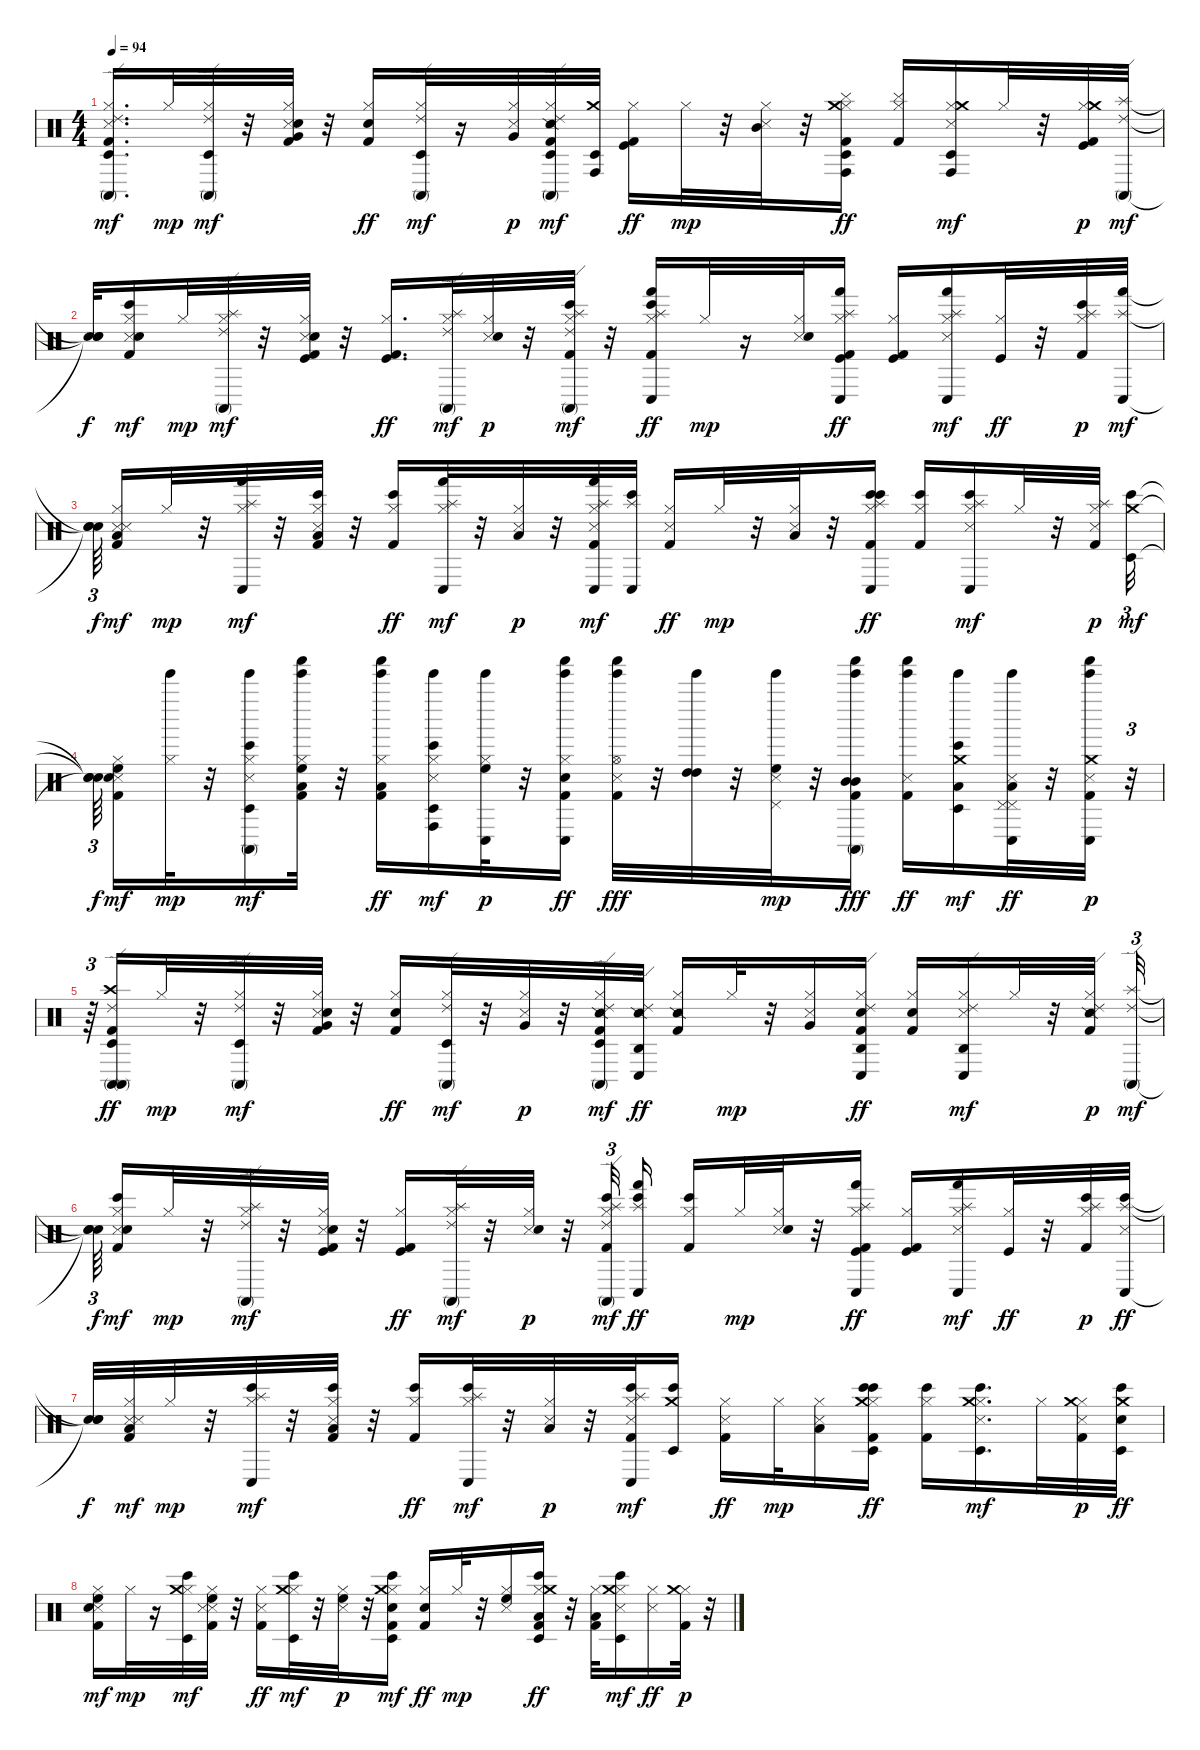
\track "" {instrument percussion}
\staff {score}
\articulation defaults
\ts (4 4)
\tempo 94
\clef neutral
\ks c
("Conga high (mute)" "Timbale low (hit)" "Ride (edge) 2" "Kick (hit) 2" "Snare (side stick) 3" "Hi-Hat (closed)").16{d dy mf volume 6} "Hi-Hat (closed)".32{dy mp} ("Hi-Hat (closed)" "Conga high (mute)" "Timbale low (hit)" "Ride (edge) 2").32{dy mf} r.32 ("Kick (hit) 2" "Snare (side stick) 3" "Hi-Hat (closed)" "Snare (hit) 2" "Very Low Tom (hit)").32 r.32 ("Kick (hit) 2" "Hi-Hat (closed)" "Snare (hit) 2").16{dy ff} ("Hi-Hat (closed)" "Timbale low (hit)" "Conga high (mute)" "Ride (edge) 2").32{dy mf} r.16 ("Snare (side stick) 3" "Hi-Hat (closed)" "Very Low Tom (hit)").32{dy p} ("Kick (hit) 2" "Hi-Hat (closed)" "Snare (side stick) 2" "Conga high (mute)" "Ride (edge) 2" "Timbale low (hit)").32{dy mf} ("Conga high (hit)" "Timbale low (hit)" "Crash medium (hit)").32{volume 6} ("Kick (hit) 2" "Hi-Hat (closed)" "Kick (hit)").16{dy ff} "Hi-Hat (closed)".32{dy mp} r.32 ("Snare (side stick) 3" "Hi-Hat (closed)" "Mid Tom (hit)").32 r.32 ("Kick (hit) 2" "Hi-Hat (closed)" "Cymbal (hit)" "Timbale low (hit)" "Crash medium (hit)" "Conga high (hit)").16{dy ff} ("Kick (hit) 2" "Hi-Hat (closed)" "Cymbal (hit)").16 ("Snare (side stick) 3" "Hi-Hat (closed)" "Conga high (hit)" "Crash medium (hit)" "Timbale low (hit)").16{dy mf} "Hi-Hat (closed)".32 r.32 ("Kick (hit) 2" "Hi-Hat (closed)" "Kick (hit)" "Crash medium (hit)").32{dy p volume 7} ("Ride (edge) 2" "Conga high (mute)" "Splash (hit)").32{dy mf volume 6} |
("Snare (hit)"{t} "Snare (hit)"{t} "Snare (hit)"{t}).32{dy f} ("Kick (hit) 2" "Snare (side stick) 3" "Hi-Hat (closed)" "Bongo High (hit)" "Electric Snare (hit)").16{dy mf} "Hi-Hat (closed)".32{dy mp} ("Hi-Hat (closed)" "Ride (edge) 2" "Conga high (mute)" "Splash (hit)").32{dy mf} r.32 ("Kick (hit) 2" "Snare (side stick) 3" "Hi-Hat (closed)" "Kick (hit)" "Electric Snare (hit)").32 r.32 ("Kick (hit) 2" "Hi-Hat (closed)" "Kick (hit)").16{d dy ff} ("Hi-Hat (closed)" "Conga high (mute)" "Ride (edge) 2" "Splash (hit)").32{dy mf} ("Snare (side stick) 3" "Hi-Hat (closed)" "Electric Snare (hit)").32{dy p} r.32 ("Kick (hit) 2" "Hi-Hat (closed)" "Bongo High (hit)" "Ride (edge) 2" "Splash (hit)" "Conga high (mute)").32{dy mf volume 7} r.32 ("Hand (hit)" "Conga low (hit)" "Splash (hit)" "Kick (hit) 2" "Hi-Hat (closed)" "Bongo High (hit)").16{dy ff volume 6} "Hi-Hat (closed)".32{dy mp} r.16 ("Snare (side stick) 3" "Hi-Hat (closed)" "Electric Snare (hit)").32 ("Kick (hit) 2" "Hi-Hat (closed)" "Kick (hit)" "Conga low (hit)" "Splash (hit)" "Hand (hit)").16{dy ff} ("Kick (hit) 2" "Hi-Hat (closed)" "Kick (hit)").16 ("Snare (side stick) 3" "Hi-Hat (closed)" "Hand (hit)" "Splash (hit)" "Conga low (hit)").16{dy mf} ("Hi-Hat (closed)" "Kick (hit)").32{dy ff} r.32 ("Kick (hit) 2" "Hi-Hat (closed)" "Bongo High (hit)" "Splash (hit)").32{dy p volume 7} ("Hand (hit)" "Conga low (hit)" "Splash (hit)").32{dy mf volume 6} |
("Snare (hit)"{t} "Snare (hit)"{t} "Snare (hit)"{t}).64{tu (3 2) dy f beam splitsecondary} ("Kick (hit) 2" "Snare (side stick) 3" "Hi-Hat (closed)" "Metronome (hit)" "Low Tom (hit)").16{dy mf} "Hi-Hat (closed)".32{dy mp} r.32 ("Hi-Hat (closed)" "Hand (hit)" "Conga low (hit)" "Splash (hit)").32{dy mf} r.32 ("Kick (hit) 2" "Snare (side stick) 3" "Hi-Hat (closed)" "Bongo High (hit)" "Low Tom (hit)").32 r.32 ("Kick (hit) 2" "Hi-Hat (closed)" "Bongo High (hit)").16{dy ff} ("Hi-Hat (closed)" "Conga low (hit)" "Hand (hit)" "Splash (hit)").32{dy mf} r.32 ("Snare (side stick) 3" "Hi-Hat (closed)" "Low Tom (hit)").32{dy p} r.32 ("Kick (hit) 2" "Hi-Hat (closed)" "Metronome (hit)" "Hand (hit)" "Splash (hit)" "Conga low (hit)").32{dy mf volume 7} ("Bongo High (hit)" "Conga low (hit)" "Splash (hit)").32{volume 6} ("Kick (hit) 2" "Hi-Hat (closed)" "Metronome (hit)").16{dy ff} "Hi-Hat (closed)".32{dy mp} r.32 ("Snare (side stick) 3" "Hi-Hat (closed)" "Low Tom (hit)").32 r.32 ("Kick (hit) 2" "Hi-Hat (closed)" "Bongo High (hit)" "Conga low (hit)" "Splash (hit)" "Bongo High (hit)").16{dy ff} ("Kick (hit) 2" "Hi-Hat (closed)" "Bongo High (hit)").16 ("Snare (side stick) 3" "Hi-Hat (closed)" "Bongo High (hit)" "Splash (hit)" "Conga low (hit)").16{dy mf} "Hi-Hat (closed)".32 r.32 ("Kick (hit) 2" "Hi-Hat (closed)" "Metronome (hit)" "Splash (hit)").32{dy p} ("Bongo High (hit)" "Timbale low (hit)" "Crash medium (hit)").32{tu (3 2) dy mf volume 6} |
("Snare (hit)"{t} "Snare (hit)"{t} "Snare (hit)"{t}).64{tu (3 2) dy f beam splitsecondary} ("Kick (hit) 2" "Snare (side stick) 3" "Hi-Hat (closed)" "Snare (hit) 2" "High Floor Tom (hit)").16{dy mf} ("Tinkle Bell (hit)" "Hi-Hat (closed)").32{dy mp} r.32 ("Tinkle Bell (hit)" "Conga high (mute)" "Snare (side stick) 3" "Hi-Hat (closed)" "Bongo High (hit)" "Timbale low (hit)").16{dy mf} ("Kick (hit) 2" "Hi-Hat (closed)" "Tinkle Bell (hit)" "Shaker (hit)" "Low Tom (hit)" "High Floor Tom (hit)").32 r.32 ("Kick (hit) 2" "Hi-Hat (closed)" "Tinkle Bell (hit)" "Shaker (hit)" "Low Tom (hit)").16{dy ff} ("Tinkle Bell (hit)" "Conga high (hit)" "Snare (side stick) 3" "Hi-Hat (closed)" "Timbale low (hit)" "Bongo High (hit)").16{dy mf} ("Tinkle Bell (hit)" "Conga low (hit)" "Hi-Hat (closed)" "High Floor Tom (hit)").32{dy p} r.32 ("Kick (hit) 2" "Conga low (hit)" "Hi-Hat (closed)" "Tinkle Bell (hit)" "Shaker (hit)" "Snare (hit) 2").16{dy ff} ("Kick (hit) 2" "Snare (side stick) 3" "Tinkle Bell (hit)" "Shaker (hit)" "Hi-Hat (open)").32{dy fff} r.32 ("Tinkle Bell (hit)" "High Tom (hit)" "High Tom (hit)").32 r.32 ("Tinkle Bell (hit)" "Pedal Hi-Hat (hit)" "Snare (side stick) 3" "High Floor Tom (hit)").32{dy mp} r.32 ("Conga high (mute)" "Kick (hit) 2" "Tinkle Bell (hit)" "Shaker (hit)" "Mid Tom (hit)" "Mid Tom (hit)").16{dy fff} ("Kick (hit) 2" "Tinkle Bell (hit)" "Shaker (hit)" "Metronome (hit)").16{dy ff} ("Tinkle Bell (hit)" "Low Tom (hit)" "Bongo High (hit)" "Crash medium (hit)" "Timbale low (hit)").16{dy mf} ("Tinkle Bell (hit)" "Conga low (hit)" "Pedal Hi-Hat (hit)" "Snare (side stick) 3" "Pedal Hi-Hat (hit)" "Low Tom (hit)").32{dy ff} r.32 ("Kick (hit) 2" "Tinkle Bell (hit)" "Shaker (hit)" "Conga low (hit)" "Metronome (hit)" "Crash medium (hit)").32{dy p volume 7} r.32{tu (3 2)} |
r.64{tu (3 2)} ("Conga high (mute)" "Conga high (mute)" "Timbale low (hit)" "Ride (edge) 2" "Crash high (hit)" "Kick (hit) 2").16{dy ff volume 6} "Hi-Hat (closed)".32{dy mp} r.32 ("Hi-Hat (closed)" "Conga high (mute)" "Timbale low (hit)" "Ride (edge) 2").32{dy mf} r.32 ("Kick (hit) 2" "Snare (side stick) 3" "Hi-Hat (closed)" "Snare (hit) 2" "Very Low Tom (hit)").32 r.32 ("Kick (hit) 2" "Hi-Hat (closed)" "Snare (hit) 2").16{dy ff} ("Hi-Hat (closed)" "Timbale low (hit)" "Conga high (mute)" "Ride (edge) 2").32{dy mf} r.32 ("Snare (side stick) 3" "Hi-Hat (closed)" "Very Low Tom (hit)").32{dy p} r.32 ("Kick (hit) 2" "Hi-Hat (closed)" "Snare (side stick) 2" "Conga high (mute)" "Ride (edge) 2" "Timbale low (hit)").32{dy mf} ("Conga low (hit)" "Agogo high (hit)" "Ride (edge) 2" "Snare (side stick) 2").32{dy ff volume 6} ("Kick (hit) 2" "Hi-Hat (closed)" "Snare (side stick) 2").16 "Hi-Hat (closed)".32{dy mp} r.32 ("Snare (side stick) 3" "Hi-Hat (closed)" "Very Low Tom (hit)").16 ("Kick (hit) 2" "Hi-Hat (closed)" "Snare (hit) 2" "Agogo high (hit)" "Ride (edge) 2" "Conga low (hit)").16{dy ff} ("Kick (hit) 2" "Hi-Hat (closed)" "Snare (hit) 2").16 ("Snare (side stick) 3" "Hi-Hat (closed)" "Conga low (hit)" "Ride (edge) 2" "Agogo high (hit)").16{dy mf} "Hi-Hat (closed)".32 r.32 ("Kick (hit) 2" "Hi-Hat (closed)" "Snare (side stick) 2" "Ride (edge) 2").32{dy p volume 7} ("Ride (edge) 2" "Conga high (mute)" "Splash (hit)").32{tu (3 2) dy mf volume 6} |
("Snare (hit)"{t} "Snare (hit)"{t} "Snare (hit)"{t}).64{tu (3 2) dy f beam splitsecondary} ("Kick (hit) 2" "Snare (side stick) 3" "Hi-Hat (closed)" "Bongo High (hit)" "Electric Snare (hit)").16{dy mf} "Hi-Hat (closed)".32{dy mp} r.32 ("Hi-Hat (closed)" "Ride (edge) 2" "Conga high (mute)" "Splash (hit)").32{dy mf} r.32 ("Kick (hit) 2" "Snare (side stick) 3" "Hi-Hat (closed)" "Kick (hit)" "Electric Snare (hit)").32 r.32 ("Kick (hit) 2" "Hi-Hat (closed)" "Kick (hit)").16{dy ff} ("Hi-Hat (closed)" "Conga high (mute)" "Ride (edge) 2" "Splash (hit)").32{dy mf} r.32 ("Snare (side stick) 3" "Hi-Hat (closed)" "Electric Snare (hit)").32{dy p} r.32 ("Kick (hit) 2" "Hi-Hat (closed)" "Bongo High (hit)" "Ride (edge) 2" "Splash (hit)" "Conga high (mute)").32{tu (3 2) dy mf volume 7} ("Hand (hit)" "Conga low (hit)" "Splash (hit)" "Bongo High (hit)").16{dy ff volume 6} ("Kick (hit) 2" "Hi-Hat (closed)" "Bongo High (hit)").16 "Hi-Hat (closed)".32{dy mp} ("Snare (side stick) 3" "Hi-Hat (closed)" "Electric Snare (hit)").32 r.32 ("Kick (hit) 2" "Hi-Hat (closed)" "Kick (hit)" "Conga low (hit)" "Splash (hit)" "Hand (hit)").16{dy ff} ("Kick (hit) 2" "Hi-Hat (closed)" "Kick (hit)").16 ("Snare (side stick) 3" "Hi-Hat (closed)" "Hand (hit)" "Splash (hit)" "Conga low (hit)").16{dy mf} ("Hi-Hat (closed)" "Kick (hit)").32{dy ff} r.32 ("Kick (hit) 2" "Hi-Hat (closed)" "Bongo High (hit)" "Splash (hit)").32{dy p} ("Bongo High (hit)" "Conga low (hit)" "Splash (hit)" "Metronome (hit)").32{dy ff volume 6} |
("Snare (hit)"{t} "Snare (hit)"{t} "Snare (hit)"{t}).32{dy f} ("Kick (hit) 2" "Snare (side stick) 3" "Hi-Hat (closed)" "Metronome (hit)" "Low Tom (hit)").32{dy mf} "Hi-Hat (closed)".32{dy mp} r.32 ("Hi-Hat (closed)" "Bongo High (hit)" "Conga low (hit)" "Splash (hit)").32{dy mf} r.32 ("Kick (hit) 2" "Snare (side stick) 3" "Hi-Hat (closed)" "Bongo High (hit)" "Low Tom (hit)").32 r.32 ("Kick (hit) 2" "Hi-Hat (closed)" "Bongo High (hit)").16{dy ff} ("Hi-Hat (closed)" "Conga low (hit)" "Bongo High (hit)" "Splash (hit)").32{dy mf} r.32 ("Snare (side stick) 3" "Hi-Hat (closed)" "Low Tom (hit)").32{dy p} r.32 ("Kick (hit) 2" "Hi-Hat (closed)" "Metronome (hit)" "Bongo High (hit)" "Splash (hit)" "Conga low (hit)").32{dy mf volume 7} ("Bongo High (hit)" "Timbale low (hit)" "Crash medium (hit)").16{volume 6} ("Kick (hit) 2" "Hi-Hat (closed)" "Metronome (hit)").16{dy ff} "Hi-Hat (closed)".32{dy mp} ("Snare (side stick) 3" "Hi-Hat (closed)" "Low Tom (hit)").16 ("Kick (hit) 2" "Hi-Hat (closed)" "Bongo High (hit)" "Timbale low (hit)" "Crash medium (hit)" "Bongo High (hit)").16{dy ff} ("Kick (hit) 2" "Hi-Hat (closed)" "Bongo High (hit)").16 ("Snare (side stick) 3" "Hi-Hat (closed)" "Bongo High (hit)" "Crash medium (hit)" "Timbale low (hit)").16{d dy mf} "Hi-Hat (closed)".32 ("Kick (hit) 2" "Hi-Hat (closed)" "Metronome (hit)" "Crash medium (hit)").32{dy p volume 7} ("Bongo High (hit)" "Timbale low (hit)" "Crash medium (hit)" "Snare (hit) 2").32{dy ff volume 6} |
("Kick (hit) 2" "Snare (side stick) 3" "Hi-Hat (closed)" "Snare (hit) 2" "High Floor Tom (hit)").16{dy mf} "Hi-Hat (closed)".32{dy mp} r.16 ("Hi-Hat (closed)" "Bongo High (hit)" "Timbale low (hit)" "Crash medium (hit)").32{dy mf} ("Kick (hit) 2" "Snare (side stick) 3" "Hi-Hat (closed)" "Metronome (hit)" "High Floor Tom (hit)").32 r.32 ("Kick (hit) 2" "Hi-Hat (closed)" "Metronome (hit)").16{dy ff} ("Hi-Hat (closed)" "Timbale low (hit)" "Bongo High (hit)" "Crash medium (hit)").32{dy mf} r.32 ("Snare (side stick) 3" "Hi-Hat (closed)" "High Floor Tom (hit)").32{dy p} r.32 ("Kick (hit) 2" "Hi-Hat (closed)" "Snare (hit) 2" "Bongo High (hit)" "Crash medium (hit)" "Timbale low (hit)").16{dy mf} ("Kick (hit) 2" "Hi-Hat (closed)" "Snare (hit) 2").16{dy ff} "Hi-Hat (closed)".32{dy mp} r.32 ("Snare (side stick) 3" "Hi-Hat (closed)" "High Floor Tom (hit)").16 ("Kick (hit) 2" "Hi-Hat (closed)" "Low Tom (hit)" "Timbale low (hit)" "Crash medium (hit)" "Bongo High (hit)").16{dy ff} r.32 ("Kick (hit) 2" "Hi-Hat (closed)" "Low Tom (hit)").32 ("Snare (side stick) 3" "Hi-Hat (closed)" "Bongo High (hit)" "Crash medium (hit)" "Timbale low (hit)").16{dy mf} ("Hi-Hat (closed)" "Metronome (hit)").16{dy ff} ("Kick (hit) 2" "Hi-Hat (closed)" "Crash medium (hit)").32{dy p} r.32
